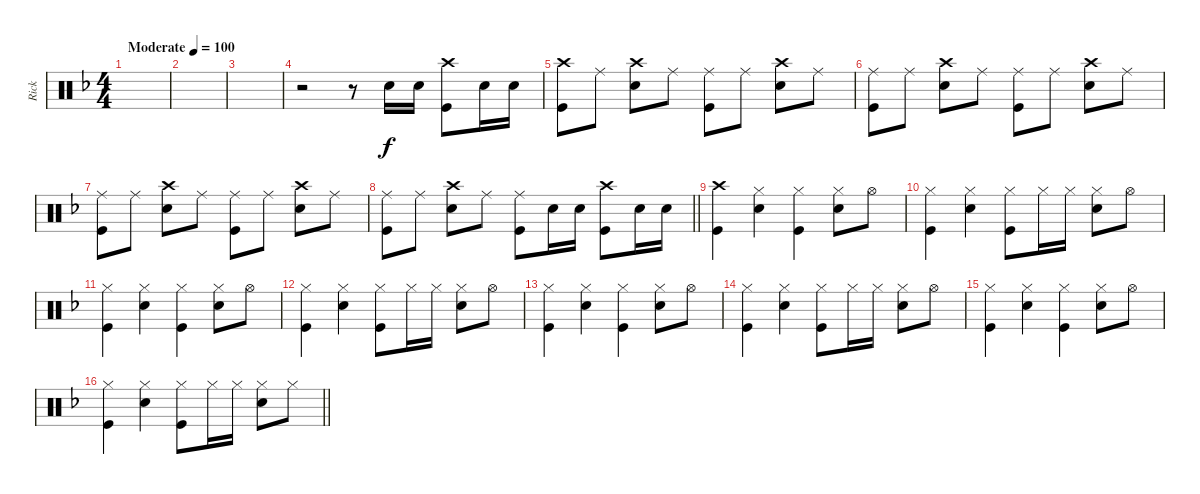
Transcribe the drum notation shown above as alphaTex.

\track ("Rick" "Rick") {instrument percussion}
\staff {score}
\articulation defaults
\ts (4 4)
\tempo (100 "Moderate")
\clef neutral
\ks dminor
|
|
|
r.2 r.8 "Snare (hit) 2".16 "Snare (hit) 2".16 ("Crash high (hit)" "Kick (hit)").8 "Snare (hit) 2".16 "Snare (hit) 2".16 |
("Crash high (hit)" "Kick (hit)").8 "Ride (middle)".8 ("Crash high (hit)" "Snare (hit) 2").8 "Ride (middle)".8 ("Ride (middle)" "Kick (hit)").8 "Ride (middle)".8 ("Crash high (hit)" "Snare (hit) 2").8 "Ride (middle)".8 |
("Ride (middle)" "Kick (hit)").8 "Ride (middle)".8 ("Crash high (hit)" "Snare (hit) 2").8 "Ride (middle)".8 ("Ride (middle)" "Kick (hit)").8 "Ride (middle)".8 ("Crash high (hit)" "Snare (hit) 2").8 "Ride (middle)".8 |
("Ride (middle)" "Kick (hit)").8 "Ride (middle)".8 ("Crash high (hit)" "Snare (hit) 2").8 "Ride (middle)".8 ("Ride (middle)" "Kick (hit)").8 "Ride (middle)".8 ("Crash high (hit)" "Snare (hit) 2").8 "Ride (middle)".8 |
\barLineRight lightlight
("Ride (middle)" "Kick (hit)").8 "Ride (middle)".8 ("Crash high (hit)" "Snare (hit) 2").8 "Ride (middle)".8 ("Ride (middle)" "Kick (hit)").8 "Snare (hit) 2".16 "Snare (hit) 2".16 ("Crash high (hit)" "Kick (hit)").8 "Snare (hit) 2".16 "Snare (hit) 2".16 |
("Crash high (hit)" "Kick (hit)").4 ("Hi-Hat (closed)" "Snare (hit) 2").4 ("Hi-Hat (closed)" "Kick (hit)").4 ("Hi-Hat (closed)" "Snare (hit) 2").8 "Hi-Hat (open)".8 |
("Hi-Hat (closed)" "Kick (hit)").4 ("Hi-Hat (closed)" "Snare (hit) 2").4 ("Hi-Hat (closed)" "Kick (hit)").8 "Hi-Hat (closed)".16 "Hi-Hat (closed)".16 ("Hi-Hat (closed)" "Snare (hit) 2").8 "Hi-Hat (open)".8 |
("Hi-Hat (closed)" "Kick (hit)").4 ("Hi-Hat (closed)" "Snare (hit) 2").4 ("Hi-Hat (closed)" "Kick (hit)").4 ("Hi-Hat (closed)" "Snare (hit) 2").8 "Hi-Hat (open)".8 |
("Hi-Hat (closed)" "Kick (hit)").4 ("Hi-Hat (closed)" "Snare (hit) 2").4 ("Hi-Hat (closed)" "Kick (hit)").8 "Hi-Hat (closed)".16 "Hi-Hat (closed)".16 ("Hi-Hat (closed)" "Snare (hit) 2").8 "Hi-Hat (open)".8 |
("Hi-Hat (closed)" "Kick (hit)").4 ("Hi-Hat (closed)" "Snare (hit) 2").4 ("Hi-Hat (closed)" "Kick (hit)").4 ("Hi-Hat (closed)" "Snare (hit) 2").8 "Hi-Hat (open)".8 |
("Hi-Hat (closed)" "Kick (hit)").4 ("Hi-Hat (closed)" "Snare (hit) 2").4 ("Hi-Hat (closed)" "Kick (hit)").8 "Hi-Hat (closed)".16 "Hi-Hat (closed)".16 ("Hi-Hat (closed)" "Snare (hit) 2").8 "Hi-Hat (open)".8 |
("Hi-Hat (closed)" "Kick (hit)").4 ("Hi-Hat (closed)" "Snare (hit) 2").4 ("Hi-Hat (closed)" "Kick (hit)").4 ("Hi-Hat (closed)" "Snare (hit) 2").8 "Hi-Hat (open)".8 |
\barLineRight lightlight
("Hi-Hat (closed)" "Kick (hit)").4 ("Hi-Hat (closed)" "Snare (hit) 2").4 ("Hi-Hat (closed)" "Kick (hit)").8 "Hi-Hat (closed)".16 "Hi-Hat (closed)".16 ("Hi-Hat (closed)" "Snare (hit) 2").8 "Hi-Hat (closed)".8
